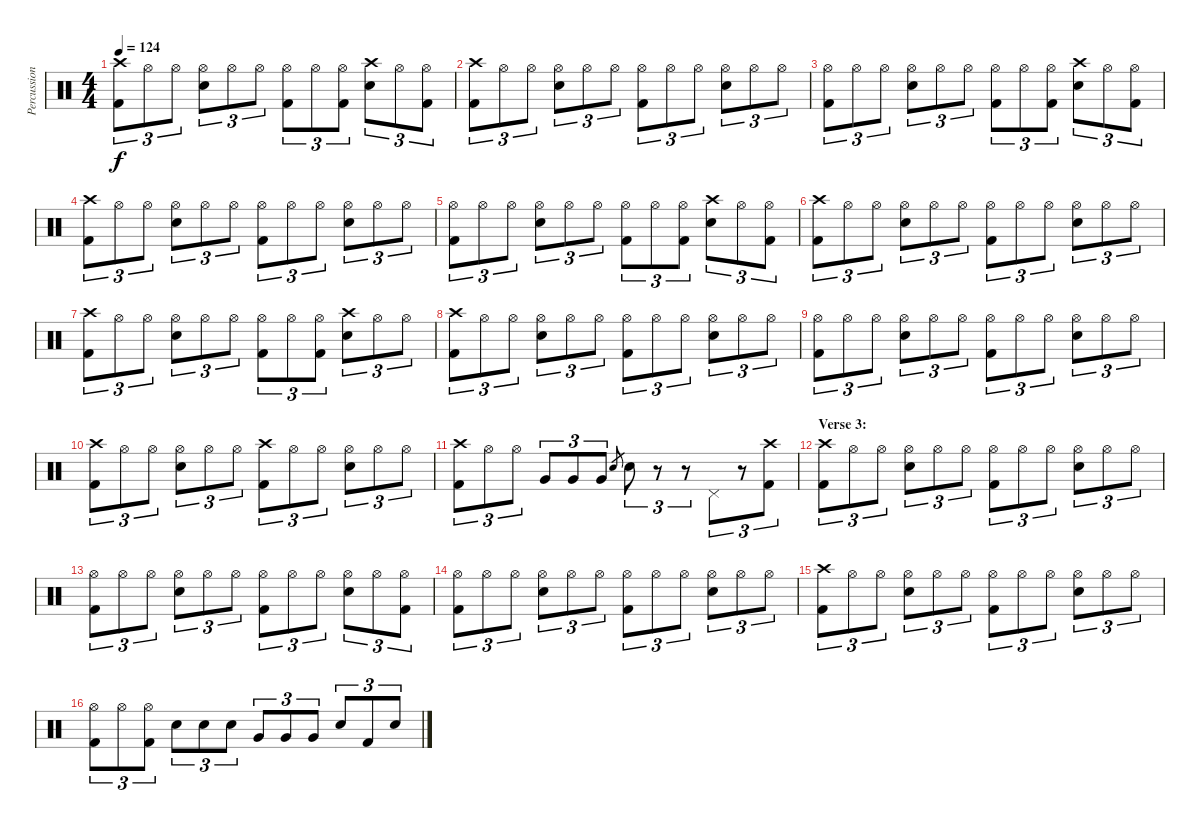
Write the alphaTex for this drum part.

\track ("Percussion" "Percussion") {instrument percussion}
\staff {score}
\articulation defaults
\ts (4 4)
\tempo 124
\clef neutral
\ks c
("Crash high (hit)" "Kick (hit) 2").8{tu (3 2) dy f} "Hi-Hat (open)".8{tu (3 2)} "Hi-Hat (open)".8{tu (3 2)} ("Hi-Hat (open)" "Snare (hit) 2").8{tu (3 2)} "Hi-Hat (open)".8{tu (3 2)} "Hi-Hat (open)".8{tu (3 2)} ("Hi-Hat (open)" "Kick (hit) 2").8{tu (3 2)} "Hi-Hat (open)".8{tu (3 2)} ("Hi-Hat (open)" "Kick (hit) 2").8{tu (3 2)} ("Crash high (hit)" "Snare (hit) 2").8{tu (3 2)} "Hi-Hat (open)".8{tu (3 2)} ("Hi-Hat (open)" "Kick (hit) 2").8{tu (3 2)} |
("Crash high (hit)" "Kick (hit) 2").8{tu (3 2)} "Hi-Hat (open)".8{tu (3 2)} "Hi-Hat (open)".8{tu (3 2)} ("Hi-Hat (open)" "Snare (hit) 2").8{tu (3 2)} "Hi-Hat (open)".8{tu (3 2)} "Hi-Hat (open)".8{tu (3 2)} ("Hi-Hat (open)" "Kick (hit) 2").8{tu (3 2)} "Hi-Hat (open)".8{tu (3 2)} "Hi-Hat (open)".8{tu (3 2)} ("Hi-Hat (open)" "Snare (hit) 2").8{tu (3 2)} "Hi-Hat (open)".8{tu (3 2)} "Hi-Hat (open)".8{tu (3 2)} |
("Hi-Hat (open)" "Kick (hit) 2").8{tu (3 2)} "Hi-Hat (open)".8{tu (3 2)} "Hi-Hat (open)".8{tu (3 2)} ("Hi-Hat (open)" "Snare (hit) 2").8{tu (3 2)} "Hi-Hat (open)".8{tu (3 2)} "Hi-Hat (open)".8{tu (3 2)} ("Hi-Hat (open)" "Kick (hit) 2").8{tu (3 2)} "Hi-Hat (open)".8{tu (3 2)} ("Hi-Hat (open)" "Kick (hit) 2").8{tu (3 2)} ("Crash high (hit)" "Snare (hit) 2").8{tu (3 2)} "Hi-Hat (open)".8{tu (3 2)} ("Hi-Hat (open)" "Kick (hit) 2").8{tu (3 2)} |
("Crash high (hit)" "Kick (hit) 2").8{tu (3 2)} "Hi-Hat (open)".8{tu (3 2)} "Hi-Hat (open)".8{tu (3 2)} ("Hi-Hat (open)" "Snare (hit) 2").8{tu (3 2)} "Hi-Hat (open)".8{tu (3 2)} "Hi-Hat (open)".8{tu (3 2)} ("Hi-Hat (open)" "Kick (hit) 2").8{tu (3 2)} "Hi-Hat (open)".8{tu (3 2)} "Hi-Hat (open)".8{tu (3 2)} ("Hi-Hat (open)" "Snare (hit) 2").8{tu (3 2)} "Hi-Hat (open)".8{tu (3 2)} "Hi-Hat (open)".8{tu (3 2)} |
("Hi-Hat (open)" "Kick (hit) 2").8{tu (3 2)} "Hi-Hat (open)".8{tu (3 2)} "Hi-Hat (open)".8{tu (3 2)} ("Hi-Hat (open)" "Snare (hit) 2").8{tu (3 2)} "Hi-Hat (open)".8{tu (3 2)} "Hi-Hat (open)".8{tu (3 2)} ("Hi-Hat (open)" "Kick (hit) 2").8{tu (3 2)} "Hi-Hat (open)".8{tu (3 2)} ("Hi-Hat (open)" "Kick (hit) 2").8{tu (3 2)} ("Crash high (hit)" "Snare (hit) 2").8{tu (3 2)} "Hi-Hat (open)".8{tu (3 2)} ("Hi-Hat (open)" "Kick (hit) 2").8{tu (3 2)} |
("Crash high (hit)" "Kick (hit) 2").8{tu (3 2)} "Hi-Hat (open)".8{tu (3 2)} "Hi-Hat (open)".8{tu (3 2)} ("Hi-Hat (open)" "Snare (hit) 2").8{tu (3 2)} "Hi-Hat (open)".8{tu (3 2)} "Hi-Hat (open)".8{tu (3 2)} ("Hi-Hat (open)" "Kick (hit) 2").8{tu (3 2)} "Hi-Hat (open)".8{tu (3 2)} "Hi-Hat (open)".8{tu (3 2)} ("Hi-Hat (open)" "Snare (hit) 2").8{tu (3 2)} "Hi-Hat (open)".8{tu (3 2)} "Hi-Hat (open)".8{tu (3 2)} |
("Crash high (hit)" "Kick (hit) 2").8{tu (3 2)} "Hi-Hat (open)".8{tu (3 2)} "Hi-Hat (open)".8{tu (3 2)} ("Hi-Hat (open)" "Snare (hit) 2").8{tu (3 2)} "Hi-Hat (open)".8{tu (3 2)} "Hi-Hat (open)".8{tu (3 2)} ("Hi-Hat (open)" "Kick (hit) 2").8{tu (3 2)} "Hi-Hat (open)".8{tu (3 2)} ("Hi-Hat (open)" "Kick (hit) 2").8{tu (3 2)} ("Crash high (hit)" "Snare (hit) 2").8{tu (3 2)} "Hi-Hat (open)".8{tu (3 2)} "Hi-Hat (open)".8{tu (3 2)} |
("Crash high (hit)" "Kick (hit) 2").8{tu (3 2)} "Hi-Hat (open)".8{tu (3 2)} "Hi-Hat (open)".8{tu (3 2)} ("Hi-Hat (open)" "Snare (hit) 2").8{tu (3 2)} "Hi-Hat (open)".8{tu (3 2)} "Hi-Hat (open)".8{tu (3 2)} ("Hi-Hat (open)" "Kick (hit) 2").8{tu (3 2)} "Hi-Hat (open)".8{tu (3 2)} "Hi-Hat (open)".8{tu (3 2)} ("Hi-Hat (open)" "Snare (hit) 2").8{tu (3 2)} "Hi-Hat (open)".8{tu (3 2)} "Hi-Hat (open)".8{tu (3 2)} |
("Hi-Hat (open)" "Kick (hit) 2").8{tu (3 2)} "Hi-Hat (open)".8{tu (3 2)} "Hi-Hat (open)".8{tu (3 2)} ("Hi-Hat (open)" "Snare (hit) 2").8{tu (3 2)} "Hi-Hat (open)".8{tu (3 2)} "Hi-Hat (open)".8{tu (3 2)} ("Hi-Hat (open)" "Kick (hit) 2").8{tu (3 2)} "Hi-Hat (open)".8{tu (3 2)} "Hi-Hat (open)".8{tu (3 2)} ("Hi-Hat (open)" "Snare (hit) 2").8{tu (3 2)} "Hi-Hat (open)".8{tu (3 2)} "Hi-Hat (open)".8{tu (3 2)} |
("Crash high (hit)" "Kick (hit) 2").8{tu (3 2)} "Hi-Hat (open)".8{tu (3 2)} "Hi-Hat (open)".8{tu (3 2)} ("Hi-Hat (open)" "Snare (hit) 2").8{tu (3 2)} "Hi-Hat (open)".8{tu (3 2)} "Hi-Hat (open)".8{tu (3 2)} ("Crash high (hit)" "Kick (hit) 2").8{tu (3 2)} "Hi-Hat (open)".8{tu (3 2)} "Hi-Hat (open)".8{tu (3 2)} ("Hi-Hat (open)" "Snare (hit) 2").8{tu (3 2)} "Hi-Hat (open)".8{tu (3 2)} "Hi-Hat (open)".8{tu (3 2)} |
("Crash high (hit)" "Kick (hit) 2").8{tu (3 2)} "Hi-Hat (open)".8{tu (3 2)} "Hi-Hat (open)".8{tu (3 2)} "Very Low Tom (hit)".8{tu (3 2)} "Very Low Tom (hit)".8{tu (3 2)} "Very Low Tom (hit)".8{tu (3 2)} "Snare (hit) 2".8{gr} "Snare (hit) 2".8{tu (3 2)} r.8{tu (3 2)} r.8{tu (3 2)} "Pedal Hi-Hat (hit)".8{tu (3 2)} r.8{tu (3 2)} ("Crash high (hit)" "Kick (hit) 2").8{tu (3 2)} |
\section ("" "Verse 3:")
("Crash high (hit)" "Kick (hit) 2").8{tu (3 2)} "Hi-Hat (open)".8{tu (3 2)} "Hi-Hat (open)".8{tu (3 2)} ("Hi-Hat (open)" "Snare (hit) 2").8{tu (3 2)} "Hi-Hat (open)".8{tu (3 2)} "Hi-Hat (open)".8{tu (3 2)} ("Hi-Hat (open)" "Kick (hit) 2").8{tu (3 2)} "Hi-Hat (open)".8{tu (3 2)} "Hi-Hat (open)".8{tu (3 2)} ("Hi-Hat (open)" "Snare (hit) 2").8{tu (3 2)} "Hi-Hat (open)".8{tu (3 2)} "Hi-Hat (open)".8{tu (3 2)} |
("Hi-Hat (open)" "Kick (hit) 2").8{tu (3 2)} "Hi-Hat (open)".8{tu (3 2)} "Hi-Hat (open)".8{tu (3 2)} ("Hi-Hat (open)" "Snare (hit) 2").8{tu (3 2)} "Hi-Hat (open)".8{tu (3 2)} "Hi-Hat (open)".8{tu (3 2)} ("Hi-Hat (open)" "Kick (hit) 2").8{tu (3 2)} "Hi-Hat (open)".8{tu (3 2)} "Hi-Hat (open)".8{tu (3 2)} ("Hi-Hat (open)" "Snare (hit) 2").8{tu (3 2)} "Hi-Hat (open)".8{tu (3 2)} ("Hi-Hat (open)" "Kick (hit) 2").8{tu (3 2)} |
("Hi-Hat (open)" "Kick (hit) 2").8{tu (3 2)} "Hi-Hat (open)".8{tu (3 2)} "Hi-Hat (open)".8{tu (3 2)} ("Hi-Hat (open)" "Snare (hit) 2").8{tu (3 2)} "Hi-Hat (open)".8{tu (3 2)} "Hi-Hat (open)".8{tu (3 2)} ("Hi-Hat (open)" "Kick (hit) 2").8{tu (3 2)} "Hi-Hat (open)".8{tu (3 2)} "Hi-Hat (open)".8{tu (3 2)} ("Hi-Hat (open)" "Snare (hit) 2").8{tu (3 2)} "Hi-Hat (open)".8{tu (3 2)} "Hi-Hat (open)".8{tu (3 2)} |
("Crash high (hit)" "Kick (hit) 2").8{tu (3 2)} "Hi-Hat (open)".8{tu (3 2)} "Hi-Hat (open)".8{tu (3 2)} ("Hi-Hat (open)" "Snare (hit) 2").8{tu (3 2)} "Hi-Hat (open)".8{tu (3 2)} "Hi-Hat (open)".8{tu (3 2)} ("Hi-Hat (open)" "Kick (hit) 2").8{tu (3 2)} "Hi-Hat (open)".8{tu (3 2)} "Hi-Hat (open)".8{tu (3 2)} ("Hi-Hat (open)" "Snare (hit) 2").8{tu (3 2)} "Hi-Hat (open)".8{tu (3 2)} "Hi-Hat (open)".8{tu (3 2)} |
("Hi-Hat (open)" "Kick (hit) 2").8{tu (3 2)} "Hi-Hat (open)".8{tu (3 2)} ("Hi-Hat (open)" "Kick (hit) 2").8{tu (3 2)} "Snare (hit) 2".8{tu (3 2)} "Snare (hit) 2".8{tu (3 2)} "Snare (hit) 2".8{tu (3 2)} "Very Low Tom (hit)".8{tu (3 2)} "Very Low Tom (hit)".8{tu (3 2)} "Very Low Tom (hit)".8{tu (3 2)} "Snare (hit) 2".8{tu (3 2)} "Kick (hit) 2".8{tu (3 2)} "Snare (hit) 2".8{tu (3 2)}
